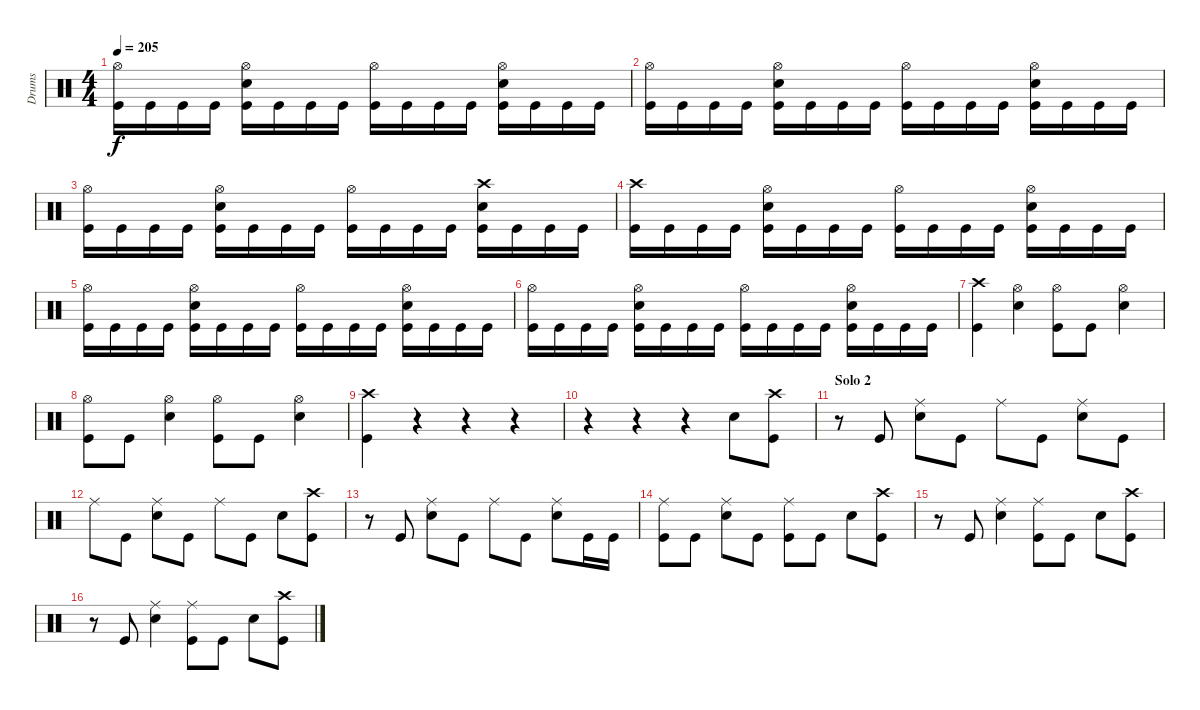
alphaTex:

\track ("Drums" "Drums") {instrument percussion}
\staff {score}
\articulation defaults
\ts (4 4)
\tempo 205
\clef neutral
\ks c
("Hi-Hat (open)" "Kick (hit)").16{dy f} "Kick (hit)".16 "Kick (hit)".16 "Kick (hit)".16 ("Hi-Hat (open)" "Snare (hit) 2" "Kick (hit)").16 "Kick (hit)".16 "Kick (hit)".16 "Kick (hit)".16 ("Hi-Hat (open)" "Kick (hit)").16 "Kick (hit)".16 "Kick (hit)".16 "Kick (hit)".16 ("Hi-Hat (open)" "Snare (hit) 2" "Kick (hit)").16 "Kick (hit)".16 "Kick (hit)".16 "Kick (hit)".16 |
("Hi-Hat (open)" "Kick (hit)").16 "Kick (hit)".16 "Kick (hit)".16 "Kick (hit)".16 ("Hi-Hat (open)" "Snare (hit) 2" "Kick (hit)").16 "Kick (hit)".16 "Kick (hit)".16 "Kick (hit)".16 ("Hi-Hat (open)" "Kick (hit)").16 "Kick (hit)".16 "Kick (hit)".16 "Kick (hit)".16 ("Hi-Hat (open)" "Snare (hit) 2" "Kick (hit)").16 "Kick (hit)".16 "Kick (hit)".16 "Kick (hit)".16 |
("Hi-Hat (open)" "Kick (hit)").16 "Kick (hit)".16 "Kick (hit)".16 "Kick (hit)".16 ("Hi-Hat (open)" "Snare (hit) 2" "Kick (hit)").16 "Kick (hit)".16 "Kick (hit)".16 "Kick (hit)".16 ("Hi-Hat (open)" "Kick (hit)").16 "Kick (hit)".16 "Kick (hit)".16 "Kick (hit)".16 ("Crash high (hit)" "Snare (hit) 2" "Kick (hit)").16 "Kick (hit)".16 "Kick (hit)".16 "Kick (hit)".16 |
("Crash high (hit)" "Kick (hit)").16 "Kick (hit)".16 "Kick (hit)".16 "Kick (hit)".16 ("Hi-Hat (open)" "Snare (hit) 2" "Kick (hit)").16 "Kick (hit)".16 "Kick (hit)".16 "Kick (hit)".16 ("Hi-Hat (open)" "Kick (hit)").16 "Kick (hit)".16 "Kick (hit)".16 "Kick (hit)".16 ("Hi-Hat (open)" "Snare (hit) 2" "Kick (hit)").16 "Kick (hit)".16 "Kick (hit)".16 "Kick (hit)".16 |
("Hi-Hat (open)" "Kick (hit)").16 "Kick (hit)".16 "Kick (hit)".16 "Kick (hit)".16 ("Hi-Hat (open)" "Snare (hit) 2" "Kick (hit)").16 "Kick (hit)".16 "Kick (hit)".16 "Kick (hit)".16 ("Hi-Hat (open)" "Kick (hit)").16 "Kick (hit)".16 "Kick (hit)".16 "Kick (hit)".16 ("Hi-Hat (open)" "Snare (hit) 2" "Kick (hit)").16 "Kick (hit)".16 "Kick (hit)".16 "Kick (hit)".16 |
("Hi-Hat (open)" "Kick (hit)").16 "Kick (hit)".16 "Kick (hit)".16 "Kick (hit)".16 ("Hi-Hat (open)" "Snare (hit) 2" "Kick (hit)").16 "Kick (hit)".16 "Kick (hit)".16 "Kick (hit)".16 ("Hi-Hat (open)" "Kick (hit)").16 "Kick (hit)".16 "Kick (hit)".16 "Kick (hit)".16 ("Hi-Hat (open)" "Snare (hit) 2" "Kick (hit)").16 "Kick (hit)".16 "Kick (hit)".16 "Kick (hit)".16 |
("Crash high (hit)" "Kick (hit)").4 ("Hi-Hat (open)" "Snare (hit) 2").4 ("Hi-Hat (open)" "Kick (hit)").8 "Kick (hit)".8 ("Hi-Hat (open)" "Snare (hit) 2").4 |
("Hi-Hat (open)" "Kick (hit)").8 "Kick (hit)".8 ("Hi-Hat (open)" "Snare (hit) 2").4 ("Hi-Hat (open)" "Kick (hit)").8 "Kick (hit)".8 ("Hi-Hat (open)" "Snare (hit) 2").4 |
("Crash high (hit)" "Kick (hit)").4 r.4 r.4 r.4 |
r.4 r.4 r.4 "Snare (hit) 2".8 ("Crash high (hit)" "Kick (hit)").8 |
\section ("" "Solo 2")
r.8 "Kick (hit)".8 ("Ride (middle)" "Snare (hit) 2").8 "Kick (hit)".8 "Ride (middle)".8 "Kick (hit)".8 ("Ride (middle)" "Snare (hit) 2").8 "Kick (hit)".8 |
"Ride (middle)".8 "Kick (hit)".8 ("Ride (middle)" "Snare (hit) 2").8 "Kick (hit)".8 "Ride (middle)".8 "Kick (hit)".8 "Snare (hit) 2".8 ("Crash high (hit)" "Kick (hit)").8 |
r.8 "Kick (hit)".8 ("Ride (middle)" "Snare (hit) 2").8 "Kick (hit)".8 "Ride (middle)".8 "Kick (hit)".8 ("Ride (middle)" "Snare (hit) 2").8 "Kick (hit)".16 "Kick (hit)".16 |
("Ride (middle)" "Kick (hit)").8 "Kick (hit)".8 ("Ride (middle)" "Snare (hit) 2").8 "Kick (hit)".8 ("Ride (middle)" "Kick (hit)").8 "Kick (hit)".8 "Snare (hit) 2".8 ("Crash high (hit)" "Kick (hit)").8 |
r.8 "Kick (hit)".8 ("Ride (middle)" "Snare (hit) 2").4 ("Ride (middle)" "Kick (hit)").8 "Kick (hit)".8 "Snare (hit) 2".8 ("Crash high (hit)" "Kick (hit)").8 |
r.8 "Kick (hit)".8 ("Ride (middle)" "Snare (hit) 2").4 ("Ride (middle)" "Kick (hit)").8 "Kick (hit)".8 "Snare (hit) 2".8 ("Crash high (hit)" "Kick (hit)").8
